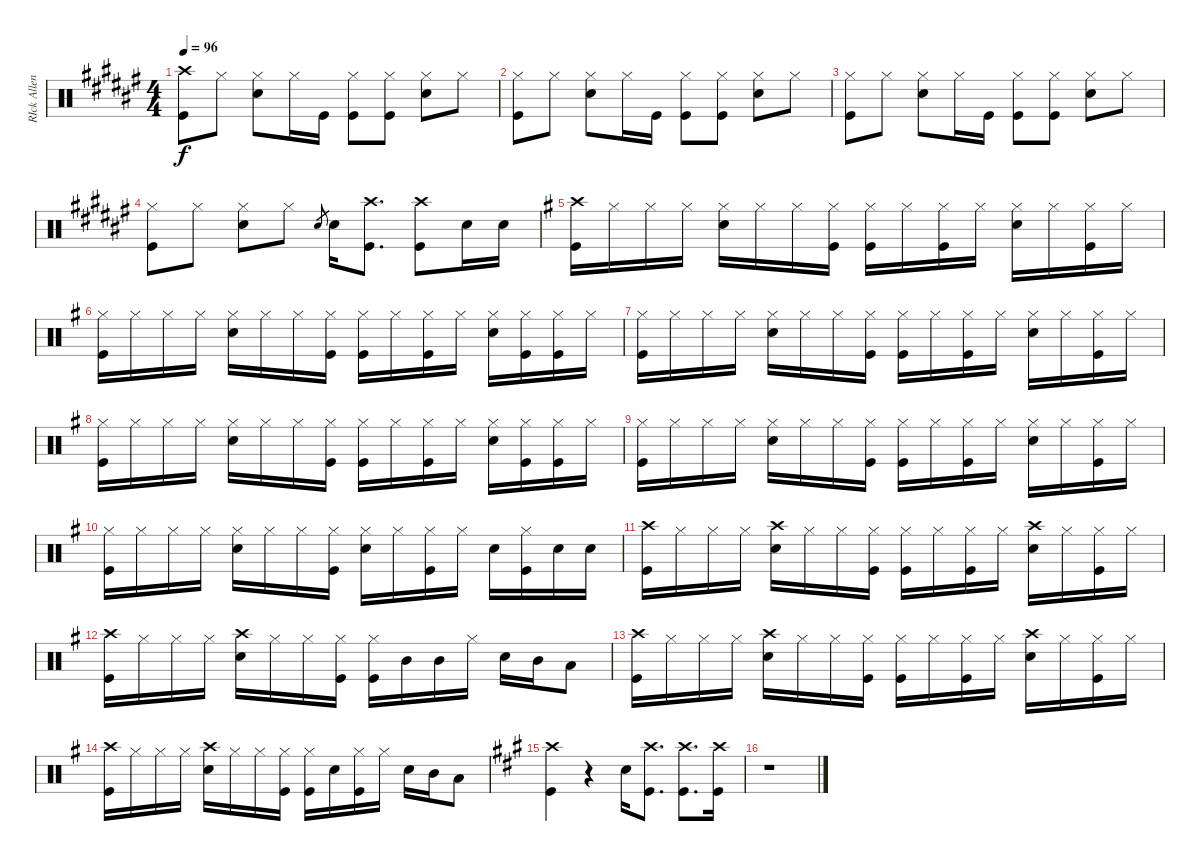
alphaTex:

\track ("RIck Allen" "RIck Allen") {instrument percussion}
\staff {score}
\articulation defaults
\ts (4 4)
\tempo 96
\clef neutral
\ks f#
("Crash high (hit)" "Kick (hit)").8{dy f} "Hi-Hat (closed)".8 ("Hi-Hat (closed)" "Snare (hit) 2").8 "Hi-Hat (closed)".16 "Kick (hit)".16 ("Hi-Hat (closed)" "Kick (hit)").8 ("Hi-Hat (closed)" "Kick (hit)").8 ("Hi-Hat (closed)" "Snare (hit) 2").8 "Hi-Hat (closed)".8 |
("Hi-Hat (closed)" "Kick (hit)").8 "Hi-Hat (closed)".8 ("Hi-Hat (closed)" "Snare (hit) 2").8 "Hi-Hat (closed)".16 "Kick (hit)".16 ("Hi-Hat (closed)" "Kick (hit)").8 ("Hi-Hat (closed)" "Kick (hit)").8 ("Hi-Hat (closed)" "Snare (hit) 2").8 "Hi-Hat (closed)".8 |
("Hi-Hat (closed)" "Kick (hit)").8 "Hi-Hat (closed)".8 ("Hi-Hat (closed)" "Snare (hit) 2").8 "Hi-Hat (closed)".16 "Kick (hit)".16 ("Hi-Hat (closed)" "Kick (hit)").8 ("Hi-Hat (closed)" "Kick (hit)").8 ("Hi-Hat (closed)" "Snare (hit) 2").8 "Hi-Hat (closed)".8 |
("Hi-Hat (closed)" "Kick (hit)").8 "Hi-Hat (closed)".8 ("Hi-Hat (closed)" "Snare (hit) 2").8 "Hi-Hat (closed)".8 "Snare (hit) 2".8{gr} "Snare (hit) 2".16 ("Crash high (hit)" "Kick (hit)").8{d} ("Crash high (hit)" "Kick (hit)").8 "Snare (hit) 2".16 "Snare (hit) 2".16 |
\ks g
("Crash high (hit)" "Kick (hit)").16 "Hi-Hat (closed)".16 "Hi-Hat (closed)".16 "Hi-Hat (closed)".16 ("Hi-Hat (closed)" "Snare (hit) 2").16 "Hi-Hat (closed)".16 "Hi-Hat (closed)".16 ("Hi-Hat (closed)" "Kick (hit)").16 ("Hi-Hat (closed)" "Kick (hit)").16 "Hi-Hat (closed)".16 ("Hi-Hat (closed)" "Kick (hit)").16 "Hi-Hat (closed)".16 ("Hi-Hat (closed)" "Snare (hit) 2").16 "Hi-Hat (closed)".16 ("Hi-Hat (closed)" "Kick (hit)").16 "Hi-Hat (closed)".16 |
("Hi-Hat (closed)" "Kick (hit)").16 "Hi-Hat (closed)".16 "Hi-Hat (closed)".16 "Hi-Hat (closed)".16 ("Hi-Hat (closed)" "Snare (hit) 2").16 "Hi-Hat (closed)".16 "Hi-Hat (closed)".16 ("Hi-Hat (closed)" "Kick (hit)").16 ("Hi-Hat (closed)" "Kick (hit)").16 "Hi-Hat (closed)".16 ("Hi-Hat (closed)" "Kick (hit)").16 "Hi-Hat (closed)".16 ("Hi-Hat (closed)" "Snare (hit) 2").16 ("Hi-Hat (closed)" "Kick (hit)").16 ("Hi-Hat (closed)" "Kick (hit)").16 "Hi-Hat (closed)".16 |
("Hi-Hat (closed)" "Kick (hit)").16 "Hi-Hat (closed)".16 "Hi-Hat (closed)".16 "Hi-Hat (closed)".16 ("Hi-Hat (closed)" "Snare (hit) 2").16 "Hi-Hat (closed)".16 "Hi-Hat (closed)".16 ("Hi-Hat (closed)" "Kick (hit)").16 ("Hi-Hat (closed)" "Kick (hit)").16 "Hi-Hat (closed)".16 ("Hi-Hat (closed)" "Kick (hit)").16 "Hi-Hat (closed)".16 ("Hi-Hat (closed)" "Snare (hit) 2").16 "Hi-Hat (closed)".16 ("Hi-Hat (closed)" "Kick (hit)").16 "Hi-Hat (closed)".16 |
("Hi-Hat (closed)" "Kick (hit)").16 "Hi-Hat (closed)".16 "Hi-Hat (closed)".16 "Hi-Hat (closed)".16 ("Hi-Hat (closed)" "Snare (hit) 2").16 "Hi-Hat (closed)".16 "Hi-Hat (closed)".16 ("Hi-Hat (closed)" "Kick (hit)").16 ("Hi-Hat (closed)" "Kick (hit)").16 "Hi-Hat (closed)".16 ("Hi-Hat (closed)" "Kick (hit)").16 "Hi-Hat (closed)".16 ("Hi-Hat (closed)" "Snare (hit) 2").16 ("Hi-Hat (closed)" "Kick (hit)").16 ("Hi-Hat (closed)" "Kick (hit)").16 "Hi-Hat (closed)".16 |
("Hi-Hat (closed)" "Kick (hit)").16 "Hi-Hat (closed)".16 "Hi-Hat (closed)".16 "Hi-Hat (closed)".16 ("Hi-Hat (closed)" "Snare (hit) 2").16 "Hi-Hat (closed)".16 "Hi-Hat (closed)".16 ("Hi-Hat (closed)" "Kick (hit)").16 ("Hi-Hat (closed)" "Kick (hit)").16 "Hi-Hat (closed)".16 ("Hi-Hat (closed)" "Kick (hit)").16 "Hi-Hat (closed)".16 ("Hi-Hat (closed)" "Snare (hit) 2").16 "Hi-Hat (closed)".16 ("Hi-Hat (closed)" "Kick (hit)").16 "Hi-Hat (closed)".16 |
("Hi-Hat (closed)" "Kick (hit)").16 "Hi-Hat (closed)".16 "Hi-Hat (closed)".16 "Hi-Hat (closed)".16 ("Hi-Hat (closed)" "Snare (hit) 2").16 "Hi-Hat (closed)".16 "Hi-Hat (closed)".16 ("Hi-Hat (closed)" "Kick (hit)").16 ("Hi-Hat (closed)" "Snare (hit) 2").16 "Hi-Hat (closed)".16 ("Hi-Hat (closed)" "Kick (hit)").16 "Hi-Hat (closed)".16 "Snare (hit) 2".16 ("Hi-Hat (closed)" "Kick (hit)").16 "Snare (hit) 2".16 "Snare (hit) 2".16 |
("Crash high (hit)" "Kick (hit)").16 "Hi-Hat (closed)".16 "Hi-Hat (closed)".16 "Hi-Hat (closed)".16 ("Crash high (hit)" "Snare (hit) 2").16 "Hi-Hat (closed)".16 "Hi-Hat (closed)".16 ("Hi-Hat (closed)" "Kick (hit)").16 ("Hi-Hat (closed)" "Kick (hit)").16 "Hi-Hat (closed)".16 ("Hi-Hat (closed)" "Kick (hit)").16 "Hi-Hat (closed)".16 ("Crash high (hit)" "Snare (hit) 2").16 "Hi-Hat (closed)".16 ("Hi-Hat (closed)" "Kick (hit)").16 "Hi-Hat (closed)".16 |
("Crash high (hit)" "Kick (hit)").16 "Hi-Hat (closed)".16 "Hi-Hat (closed)".16 "Hi-Hat (closed)".16 ("Crash high (hit)" "Snare (hit) 2").16 "Hi-Hat (closed)".16 "Hi-Hat (closed)".16 ("Hi-Hat (closed)" "Kick (hit)").16 ("Hi-Hat (closed)" "Kick (hit)").16 "Mid Tom (hit)".16 "Mid Tom (hit)".16 "Hi-Hat (closed)".16 "Snare (hit) 2".16 "Mid Tom (hit)".16 "Low Tom (hit)".8 |
("Crash high (hit)" "Kick (hit)").16 "Hi-Hat (closed)".16 "Hi-Hat (closed)".16 "Hi-Hat (closed)".16 ("Crash high (hit)" "Snare (hit) 2").16 "Hi-Hat (closed)".16 "Hi-Hat (closed)".16 ("Hi-Hat (closed)" "Kick (hit)").16 ("Hi-Hat (closed)" "Kick (hit)").16 "Hi-Hat (closed)".16 ("Hi-Hat (closed)" "Kick (hit)").16 "Hi-Hat (closed)".16 ("Crash high (hit)" "Snare (hit) 2").16 "Hi-Hat (closed)".16 ("Hi-Hat (closed)" "Kick (hit)").16 "Hi-Hat (closed)".16 |
("Crash high (hit)" "Kick (hit)").16 "Hi-Hat (closed)".16 "Hi-Hat (closed)".16 "Hi-Hat (closed)".16 ("Crash high (hit)" "Snare (hit) 2").16 "Hi-Hat (closed)".16 "Hi-Hat (closed)".16 ("Hi-Hat (closed)" "Kick (hit)").16 ("Hi-Hat (closed)" "Kick (hit)").16 "Snare (hit) 2".16 ("Hi-Hat (closed)" "Kick (hit)").16 "Hi-Hat (closed)".16 "Snare (hit) 2".16 "Mid Tom (hit)".16 "Low Tom (hit)".8 |
\ks a
("Crash high (hit)" "Kick (hit)").4 r.4 "Snare (hit) 2".16 ("Crash high (hit)" "Kick (hit)").8{d} ("Crash high (hit)" "Kick (hit)").8{d} ("Crash high (hit)" "Kick (hit)").16 |
r.1
